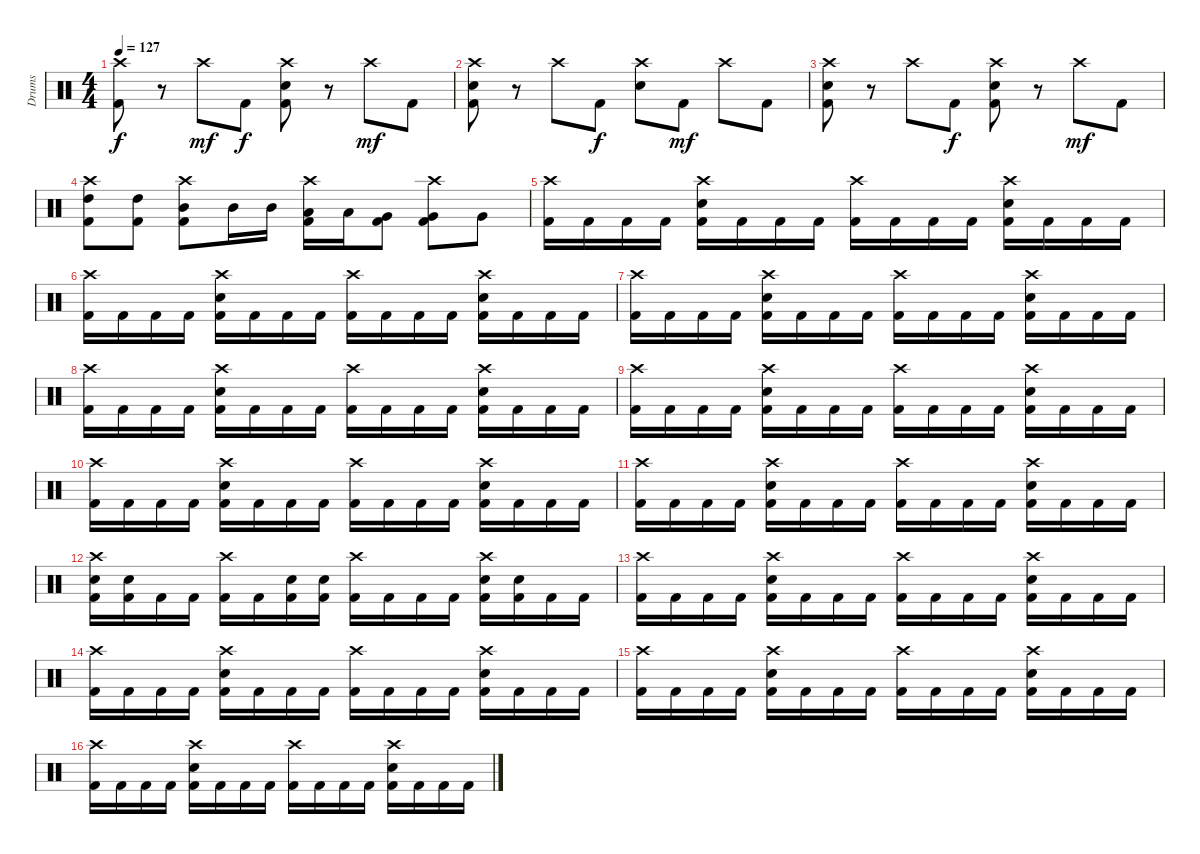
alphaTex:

\track ("Drums" "Drums") {instrument percussion}
\staff {score}
\articulation defaults
\ts (4 4)
\tempo 127
\clef neutral
\ks c
("Crash high (hit)" "Kick (hit) 2").8{dy f} r.8 "Crash high (hit)".8{dy mf} "Kick (hit) 2".8{dy f} ("Crash high (hit)" "Electric Snare (hit)" "Kick (hit) 2").8 r.8 "Crash high (hit)".8{dy mf} "Kick (hit) 2".8 |
("Crash high (hit)" "Electric Snare (hit)" "Kick (hit) 2").8 r.8 "Crash high (hit)".8 "Kick (hit) 2".8{dy f} ("Crash high (hit)" "Electric Snare (hit)").8 "Kick (hit) 2".8{dy mf} "Crash high (hit)".8 "Kick (hit) 2".8 |
("Crash high (hit)" "Electric Snare (hit)" "Kick (hit) 2").8 r.8 "Crash high (hit)".8 "Kick (hit) 2".8{dy f} ("Crash high (hit)" "Electric Snare (hit)" "Kick (hit) 2").8 r.8 "Crash high (hit)".8{dy mf} "Kick (hit) 2".8 |
("Crash high (hit)" "High Tom (hit)" "Kick (hit) 2").8 ("High Tom (hit)" "Kick (hit) 2").8 ("Crash high (hit)" "Mid Tom (hit)" "Kick (hit) 2").8 "Mid Tom (hit)".16 "Mid Tom (hit)".16 ("Crash high (hit)" "Low Tom (hit)" "Kick (hit) 2").16 "Low Tom (hit)".16 ("Very Low Tom (hit)" "Kick (hit) 2").8 ("Crash high (hit)" "Very Low Tom (hit)" "Kick (hit) 2").8 "Very Low Tom (hit)".8 |
("Crash high (hit)" "Kick (hit) 2").16 "Kick (hit) 2".16 "Kick (hit) 2".16 "Kick (hit) 2".16 ("Crash high (hit)" "Electric Snare (hit)" "Kick (hit) 2").16 "Kick (hit) 2".16 "Kick (hit) 2".16 "Kick (hit) 2".16 ("Crash high (hit)" "Kick (hit) 2").16 "Kick (hit) 2".16 "Kick (hit) 2".16 "Kick (hit) 2".16 ("Crash high (hit)" "Electric Snare (hit)" "Kick (hit) 2").16 "Kick (hit) 2".16 "Kick (hit) 2".16 "Kick (hit) 2".16 |
("Crash high (hit)" "Kick (hit) 2").16 "Kick (hit) 2".16 "Kick (hit) 2".16 "Kick (hit) 2".16 ("Crash high (hit)" "Electric Snare (hit)" "Kick (hit) 2").16 "Kick (hit) 2".16 "Kick (hit) 2".16 "Kick (hit) 2".16 ("Crash high (hit)" "Kick (hit) 2").16 "Kick (hit) 2".16 "Kick (hit) 2".16 "Kick (hit) 2".16 ("Crash high (hit)" "Electric Snare (hit)" "Kick (hit) 2").16 "Kick (hit) 2".16 "Kick (hit) 2".16 "Kick (hit) 2".16 |
("Crash high (hit)" "Kick (hit) 2").16 "Kick (hit) 2".16 "Kick (hit) 2".16 "Kick (hit) 2".16 ("Crash high (hit)" "Electric Snare (hit)" "Kick (hit) 2").16 "Kick (hit) 2".16 "Kick (hit) 2".16 "Kick (hit) 2".16 ("Crash high (hit)" "Kick (hit) 2").16 "Kick (hit) 2".16 "Kick (hit) 2".16 "Kick (hit) 2".16 ("Crash high (hit)" "Electric Snare (hit)" "Kick (hit) 2").16 "Kick (hit) 2".16 "Kick (hit) 2".16 "Kick (hit) 2".16 |
("Crash high (hit)" "Kick (hit) 2").16 "Kick (hit) 2".16 "Kick (hit) 2".16 "Kick (hit) 2".16 ("Crash high (hit)" "Electric Snare (hit)" "Kick (hit) 2").16 "Kick (hit) 2".16 "Kick (hit) 2".16 "Kick (hit) 2".16 ("Crash high (hit)" "Kick (hit) 2").16 "Kick (hit) 2".16 "Kick (hit) 2".16 "Kick (hit) 2".16 ("Crash high (hit)" "Electric Snare (hit)" "Kick (hit) 2").16 "Kick (hit) 2".16 "Kick (hit) 2".16 "Kick (hit) 2".16 |
("Crash high (hit)" "Kick (hit) 2").16 "Kick (hit) 2".16 "Kick (hit) 2".16 "Kick (hit) 2".16 ("Crash high (hit)" "Electric Snare (hit)" "Kick (hit) 2").16 "Kick (hit) 2".16 "Kick (hit) 2".16 "Kick (hit) 2".16 ("Crash high (hit)" "Kick (hit) 2").16 "Kick (hit) 2".16 "Kick (hit) 2".16 "Kick (hit) 2".16 ("Crash high (hit)" "Electric Snare (hit)" "Kick (hit) 2").16 "Kick (hit) 2".16 "Kick (hit) 2".16 "Kick (hit) 2".16 |
("Crash high (hit)" "Kick (hit) 2").16 "Kick (hit) 2".16 "Kick (hit) 2".16 "Kick (hit) 2".16 ("Crash high (hit)" "Electric Snare (hit)" "Kick (hit) 2").16 "Kick (hit) 2".16 "Kick (hit) 2".16 "Kick (hit) 2".16 ("Crash high (hit)" "Kick (hit) 2").16 "Kick (hit) 2".16 "Kick (hit) 2".16 "Kick (hit) 2".16 ("Crash high (hit)" "Electric Snare (hit)" "Kick (hit) 2").16 "Kick (hit) 2".16 "Kick (hit) 2".16 "Kick (hit) 2".16 |
("Crash high (hit)" "Kick (hit) 2").16 "Kick (hit) 2".16 "Kick (hit) 2".16 "Kick (hit) 2".16 ("Crash high (hit)" "Electric Snare (hit)" "Kick (hit) 2").16 "Kick (hit) 2".16 "Kick (hit) 2".16 "Kick (hit) 2".16 ("Crash high (hit)" "Kick (hit) 2").16 "Kick (hit) 2".16 "Kick (hit) 2".16 "Kick (hit) 2".16 ("Crash high (hit)" "Electric Snare (hit)" "Kick (hit) 2").16 "Kick (hit) 2".16 "Kick (hit) 2".16 "Kick (hit) 2".16 |
("Crash high (hit)" "Electric Snare (hit)" "Kick (hit) 2").16 ("Electric Snare (hit)" "Kick (hit) 2").16 "Kick (hit) 2".16 "Kick (hit) 2".16 ("Crash high (hit)" "Kick (hit) 2").16 "Kick (hit) 2".16 ("Electric Snare (hit)" "Kick (hit) 2").16 ("Electric Snare (hit)" "Kick (hit) 2").16 ("Crash high (hit)" "Kick (hit) 2").16 "Kick (hit) 2".16 "Kick (hit) 2".16 "Kick (hit) 2".16 ("Crash high (hit)" "Electric Snare (hit)" "Kick (hit) 2").16 ("Electric Snare (hit)" "Kick (hit) 2").16 "Kick (hit) 2".16 "Kick (hit) 2".16 |
("Crash high (hit)" "Kick (hit) 2").16 "Kick (hit) 2".16 "Kick (hit) 2".16 "Kick (hit) 2".16 ("Crash high (hit)" "Electric Snare (hit)" "Kick (hit) 2").16 "Kick (hit) 2".16 "Kick (hit) 2".16 "Kick (hit) 2".16 ("Crash high (hit)" "Kick (hit) 2").16 "Kick (hit) 2".16 "Kick (hit) 2".16 "Kick (hit) 2".16 ("Crash high (hit)" "Electric Snare (hit)" "Kick (hit) 2").16 "Kick (hit) 2".16 "Kick (hit) 2".16 "Kick (hit) 2".16 |
("Crash high (hit)" "Kick (hit) 2").16 "Kick (hit) 2".16 "Kick (hit) 2".16 "Kick (hit) 2".16 ("Crash high (hit)" "Electric Snare (hit)" "Kick (hit) 2").16 "Kick (hit) 2".16 "Kick (hit) 2".16 "Kick (hit) 2".16 ("Crash high (hit)" "Kick (hit) 2").16 "Kick (hit) 2".16 "Kick (hit) 2".16 "Kick (hit) 2".16 ("Crash high (hit)" "Electric Snare (hit)" "Kick (hit) 2").16 "Kick (hit) 2".16 "Kick (hit) 2".16 "Kick (hit) 2".16 |
("Crash high (hit)" "Kick (hit) 2").16 "Kick (hit) 2".16 "Kick (hit) 2".16 "Kick (hit) 2".16 ("Crash high (hit)" "Electric Snare (hit)" "Kick (hit) 2").16 "Kick (hit) 2".16 "Kick (hit) 2".16 "Kick (hit) 2".16 ("Crash high (hit)" "Kick (hit) 2").16 "Kick (hit) 2".16 "Kick (hit) 2".16 "Kick (hit) 2".16 ("Crash high (hit)" "Electric Snare (hit)" "Kick (hit) 2").16 "Kick (hit) 2".16 "Kick (hit) 2".16 "Kick (hit) 2".16 |
("Crash high (hit)" "Kick (hit) 2").16 "Kick (hit) 2".16 "Kick (hit) 2".16 "Kick (hit) 2".16 ("Crash high (hit)" "Electric Snare (hit)" "Kick (hit) 2").16 "Kick (hit) 2".16 "Kick (hit) 2".16 "Kick (hit) 2".16 ("Crash high (hit)" "Kick (hit) 2").16 "Kick (hit) 2".16 "Kick (hit) 2".16 "Kick (hit) 2".16 ("Crash high (hit)" "Electric Snare (hit)" "Kick (hit) 2").16 "Kick (hit) 2".16 "Kick (hit) 2".16 "Kick (hit) 2".16
